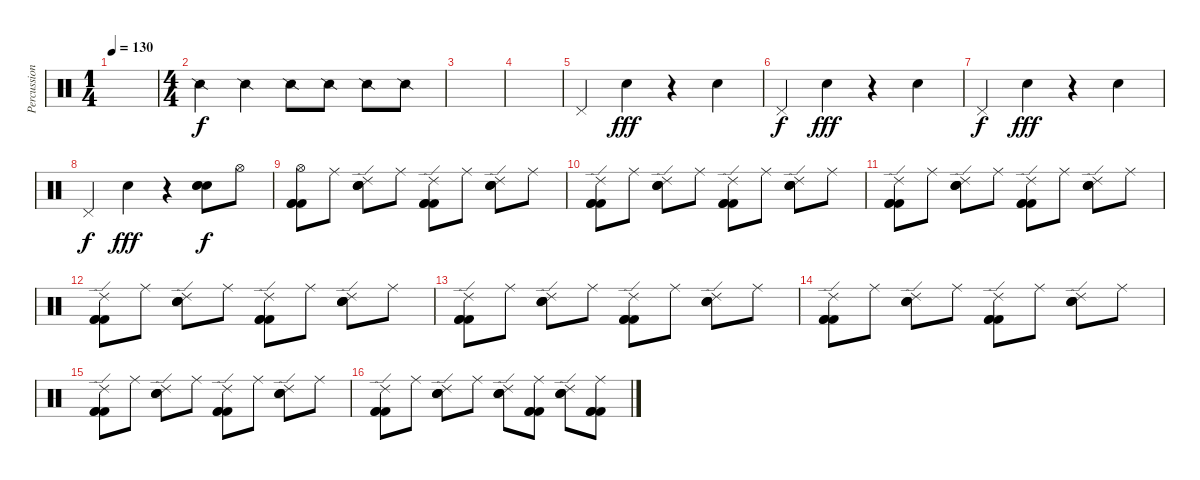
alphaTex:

\track ("Percussion" "Percussion") {instrument percussion}
\staff {score}
\articulation defaults
\ts (1 4)
\tempo 130
\clef neutral
\ks c
|
\ts (4 4)
"Snare (side stick) 2".4 "Snare (side stick) 2".4 "Snare (side stick) 2".8 "Snare (side stick) 2".8 "Snare (side stick) 2".8 "Snare (side stick) 2".8 |
|
|
"Pedal Hi-Hat (hit)".4 "Hand Clap (hit)".4{dy fff} r.4 "Hand Clap (hit)".4 |
"Pedal Hi-Hat (hit)".4{dy f} "Hand Clap (hit)".4{dy fff} r.4 "Hand Clap (hit)".4 |
"Pedal Hi-Hat (hit)".4{dy f} "Hand Clap (hit)".4{dy fff} r.4 "Hand Clap (hit)".4 |
"Pedal Hi-Hat (hit)".4{dy f} "Hand Clap (hit)".4{dy fff} r.4 ("Electric Snare (hit)" "Electric Snare (hit)" "Electric Snare (hit)").8{dy f} "Hi-Hat (open)".8 |
("Hi-Hat (open)" "Kick (hit) 2" "Kick (hit) 2" "Kick (hit) 2").8 "Ride (middle)".8 ("Ride (edge) 2" "Electric Snare (hit)" "Electric Snare (hit)" "Electric Snare (hit)").8 "Ride (middle)".8 ("Ride (edge) 2" "Kick (hit) 2" "Kick (hit) 2" "Kick (hit) 2").8 "Ride (middle)".8 ("Ride (edge) 2" "Electric Snare (hit)" "Electric Snare (hit)" "Electric Snare (hit)").8 "Ride (middle)".8 |
("Ride (edge) 2" "Kick (hit) 2" "Kick (hit) 2" "Kick (hit) 2").8 "Ride (middle)".8 ("Ride (edge) 2" "Electric Snare (hit)" "Electric Snare (hit)" "Electric Snare (hit)").8 "Ride (middle)".8 ("Ride (edge) 2" "Kick (hit) 2" "Kick (hit) 2" "Kick (hit) 2").8 "Ride (middle)".8 ("Ride (edge) 2" "Electric Snare (hit)" "Electric Snare (hit)" "Electric Snare (hit)").8 "Ride (middle)".8 |
("Ride (edge) 2" "Kick (hit) 2" "Kick (hit) 2" "Kick (hit) 2").8 "Ride (middle)".8 ("Ride (edge) 2" "Electric Snare (hit)" "Electric Snare (hit)" "Electric Snare (hit)").8 "Ride (middle)".8 ("Ride (edge) 2" "Kick (hit) 2" "Kick (hit) 2" "Kick (hit) 2").8 "Ride (middle)".8 ("Ride (edge) 2" "Electric Snare (hit)" "Electric Snare (hit)" "Electric Snare (hit)").8 "Ride (middle)".8 |
("Ride (edge) 2" "Kick (hit) 2" "Kick (hit) 2" "Kick (hit) 2").8 "Ride (middle)".8 ("Ride (edge) 2" "Electric Snare (hit)" "Electric Snare (hit)" "Electric Snare (hit)").8 "Ride (middle)".8 ("Ride (edge) 2" "Kick (hit) 2" "Kick (hit) 2" "Kick (hit) 2").8 "Ride (middle)".8 ("Ride (edge) 2" "Electric Snare (hit)" "Electric Snare (hit)" "Electric Snare (hit)").8 "Ride (middle)".8 |
("Ride (edge) 2" "Kick (hit) 2" "Kick (hit) 2" "Kick (hit) 2").8 "Ride (middle)".8 ("Ride (edge) 2" "Electric Snare (hit)" "Electric Snare (hit)" "Electric Snare (hit)").8 "Ride (middle)".8 ("Ride (edge) 2" "Kick (hit) 2" "Kick (hit) 2" "Kick (hit) 2").8 "Ride (middle)".8 ("Ride (edge) 2" "Electric Snare (hit)" "Electric Snare (hit)" "Electric Snare (hit)").8 "Ride (middle)".8 |
("Ride (edge) 2" "Kick (hit) 2" "Kick (hit) 2" "Kick (hit) 2").8 "Ride (middle)".8 ("Ride (edge) 2" "Electric Snare (hit)" "Electric Snare (hit)" "Electric Snare (hit)").8 "Ride (middle)".8 ("Ride (edge) 2" "Kick (hit) 2" "Kick (hit) 2" "Kick (hit) 2").8 "Ride (middle)".8 ("Ride (edge) 2" "Electric Snare (hit)" "Electric Snare (hit)" "Electric Snare (hit)").8 "Ride (middle)".8 |
("Ride (edge) 2" "Kick (hit) 2" "Kick (hit) 2" "Kick (hit) 2").8 "Ride (middle)".8 ("Ride (edge) 2" "Electric Snare (hit)" "Electric Snare (hit)" "Electric Snare (hit)").8 "Ride (middle)".8 ("Ride (edge) 2" "Kick (hit) 2" "Kick (hit) 2" "Kick (hit) 2").8 "Ride (middle)".8 ("Ride (edge) 2" "Electric Snare (hit)" "Electric Snare (hit)" "Electric Snare (hit)").8 "Ride (middle)".8 |
("Ride (edge) 2" "Kick (hit) 2" "Kick (hit) 2" "Kick (hit) 2").8 "Ride (middle)".8 ("Ride (edge) 2" "Electric Snare (hit)" "Electric Snare (hit)" "Electric Snare (hit)").8 "Ride (middle)".8 ("Ride (edge) 2" "Electric Snare (hit)" "Electric Snare (hit)" "Electric Snare (hit)").8 ("Ride (middle)" "Kick (hit) 2" "Kick (hit) 2" "Kick (hit) 2").8 ("Ride (edge) 2" "Electric Snare (hit)" "Electric Snare (hit)" "Electric Snare (hit)").8 ("Ride (middle)" "Kick (hit) 2" "Kick (hit) 2" "Kick (hit) 2").8
